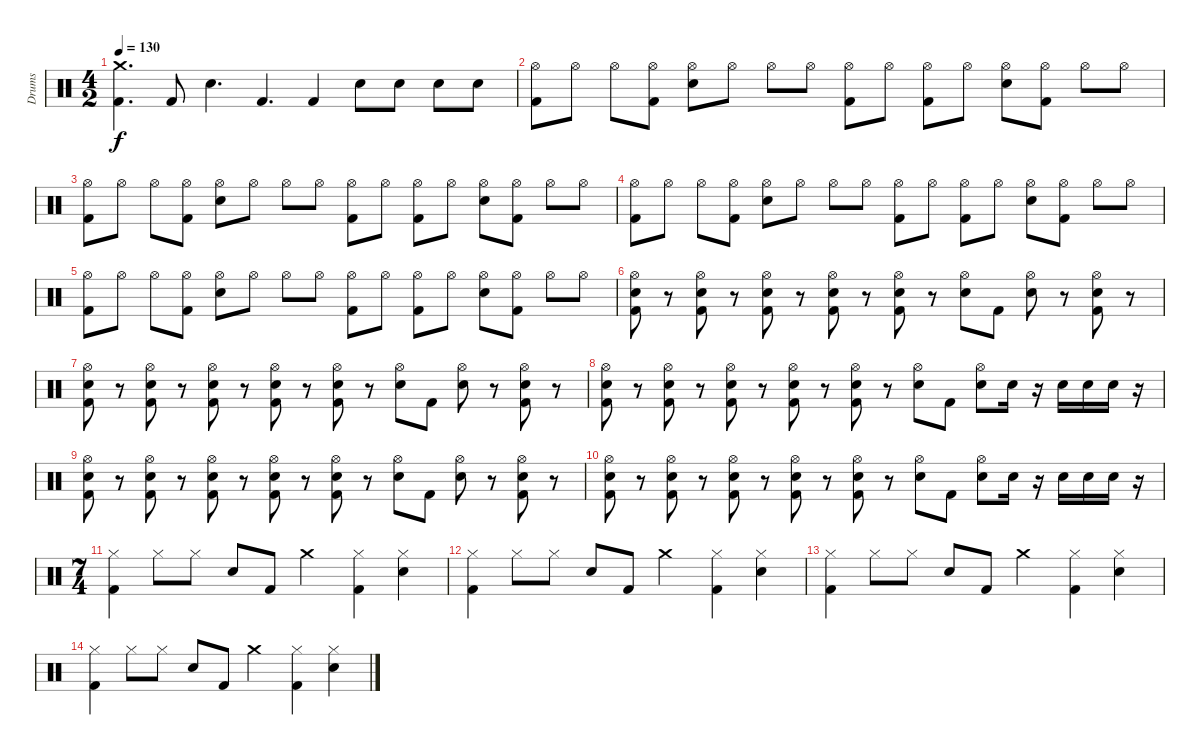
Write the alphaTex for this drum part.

\track ("Drums" "Drums") {instrument percussion}
\staff {score}
\articulation defaults
\ts (4 2)
\tempo 130
\clef neutral
\ks c
("Crash medium (hit)" "Kick (hit) 2").4{d dy f} "Kick (hit) 2".8 "Snare (hit) 2".4{d} "Kick (hit) 2".4{d} "Kick (hit) 2".4 "Snare (hit) 2".8 "Snare (hit) 2".8 "Snare (hit) 2".8 "Snare (hit) 2".8 |
("Hi-Hat (open)" "Kick (hit) 2").8 "Hi-Hat (open)".8 "Hi-Hat (open)".8 ("Hi-Hat (open)" "Kick (hit) 2").8 ("Hi-Hat (open)" "Snare (hit) 2").8 "Hi-Hat (open)".8 "Hi-Hat (open)".8 "Hi-Hat (open)".8 ("Hi-Hat (open)" "Kick (hit) 2").8 "Hi-Hat (open)".8 ("Hi-Hat (open)" "Kick (hit) 2").8 "Hi-Hat (open)".8 ("Hi-Hat (open)" "Snare (hit) 2").8 ("Hi-Hat (open)" "Kick (hit) 2").8 "Hi-Hat (open)".8 "Hi-Hat (open)".8 |
("Hi-Hat (open)" "Kick (hit) 2").8 "Hi-Hat (open)".8 "Hi-Hat (open)".8 ("Hi-Hat (open)" "Kick (hit) 2").8 ("Hi-Hat (open)" "Snare (hit) 2").8 "Hi-Hat (open)".8 "Hi-Hat (open)".8 "Hi-Hat (open)".8 ("Hi-Hat (open)" "Kick (hit) 2").8 "Hi-Hat (open)".8 ("Hi-Hat (open)" "Kick (hit) 2").8 "Hi-Hat (open)".8 ("Hi-Hat (open)" "Snare (hit) 2").8 ("Hi-Hat (open)" "Kick (hit) 2").8 "Hi-Hat (open)".8 "Hi-Hat (open)".8 |
("Hi-Hat (open)" "Kick (hit) 2").8 "Hi-Hat (open)".8 "Hi-Hat (open)".8 ("Hi-Hat (open)" "Kick (hit) 2").8 ("Hi-Hat (open)" "Snare (hit) 2").8 "Hi-Hat (open)".8 "Hi-Hat (open)".8 "Hi-Hat (open)".8 ("Hi-Hat (open)" "Kick (hit) 2").8 "Hi-Hat (open)".8 ("Hi-Hat (open)" "Kick (hit) 2").8 "Hi-Hat (open)".8 ("Hi-Hat (open)" "Snare (hit) 2").8 ("Hi-Hat (open)" "Kick (hit) 2").8 "Hi-Hat (open)".8 "Hi-Hat (open)".8 |
("Hi-Hat (open)" "Kick (hit) 2").8 "Hi-Hat (open)".8 "Hi-Hat (open)".8 ("Hi-Hat (open)" "Kick (hit) 2").8 ("Hi-Hat (open)" "Snare (hit) 2").8 "Hi-Hat (open)".8 "Hi-Hat (open)".8 "Hi-Hat (open)".8 ("Hi-Hat (open)" "Kick (hit) 2").8 "Hi-Hat (open)".8 ("Hi-Hat (open)" "Kick (hit) 2").8 "Hi-Hat (open)".8 ("Hi-Hat (open)" "Snare (hit) 2").8 ("Hi-Hat (open)" "Kick (hit) 2").8 "Hi-Hat (open)".8 "Hi-Hat (open)".8 |
("Kick (hit) 2" "Hi-Hat (open)" "Snare (hit) 2").8 r.8 ("Kick (hit) 2" "Hi-Hat (open)" "Snare (hit) 2").8 r.8 ("Kick (hit) 2" "Hi-Hat (open)" "Snare (hit) 2").8 r.8 ("Kick (hit) 2" "Hi-Hat (open)" "Snare (hit) 2").8 r.8 ("Kick (hit) 2" "Hi-Hat (open)" "Snare (hit) 2").8 r.8 ("Hi-Hat (open)" "Snare (hit) 2").8 "Kick (hit) 2".8 ("Hi-Hat (open)" "Snare (hit) 2").8 r.8 ("Kick (hit) 2" "Hi-Hat (open)" "Snare (hit) 2").8 r.8 |
("Kick (hit) 2" "Hi-Hat (open)" "Snare (hit) 2").8 r.8 ("Kick (hit) 2" "Hi-Hat (open)" "Snare (hit) 2").8 r.8 ("Kick (hit) 2" "Hi-Hat (open)" "Snare (hit) 2").8 r.8 ("Kick (hit) 2" "Hi-Hat (open)" "Snare (hit) 2").8 r.8 ("Kick (hit) 2" "Hi-Hat (open)" "Snare (hit) 2").8 r.8 ("Hi-Hat (open)" "Snare (hit) 2").8 "Kick (hit) 2".8 ("Hi-Hat (open)" "Snare (hit) 2").8 r.8 ("Kick (hit) 2" "Hi-Hat (open)" "Snare (hit) 2").8 r.8 |
("Kick (hit) 2" "Hi-Hat (open)" "Snare (hit) 2").8 r.8 ("Kick (hit) 2" "Hi-Hat (open)" "Snare (hit) 2").8 r.8 ("Kick (hit) 2" "Hi-Hat (open)" "Snare (hit) 2").8 r.8 ("Kick (hit) 2" "Hi-Hat (open)" "Snare (hit) 2").8 r.8 ("Kick (hit) 2" "Hi-Hat (open)" "Snare (hit) 2").8 r.8 ("Hi-Hat (open)" "Snare (hit) 2").8 "Kick (hit) 2".8 ("Hi-Hat (open)" "Snare (hit) 2").8 "Snare (hit) 2".16 r.16 "Snare (hit) 2".16 "Snare (hit) 2".16 "Snare (hit) 2".16 r.16 |
("Kick (hit) 2" "Hi-Hat (open)" "Snare (hit) 2").8 r.8 ("Kick (hit) 2" "Hi-Hat (open)" "Snare (hit) 2").8 r.8 ("Kick (hit) 2" "Hi-Hat (open)" "Snare (hit) 2").8 r.8 ("Kick (hit) 2" "Hi-Hat (open)" "Snare (hit) 2").8 r.8 ("Kick (hit) 2" "Hi-Hat (open)" "Snare (hit) 2").8 r.8 ("Hi-Hat (open)" "Snare (hit) 2").8 "Kick (hit) 2".8 ("Hi-Hat (open)" "Snare (hit) 2").8 r.8 ("Kick (hit) 2" "Hi-Hat (open)" "Snare (hit) 2").8 r.8 |
("Kick (hit) 2" "Hi-Hat (open)" "Snare (hit) 2").8 r.8 ("Kick (hit) 2" "Hi-Hat (open)" "Snare (hit) 2").8 r.8 ("Kick (hit) 2" "Hi-Hat (open)" "Snare (hit) 2").8 r.8 ("Kick (hit) 2" "Hi-Hat (open)" "Snare (hit) 2").8 r.8 ("Kick (hit) 2" "Hi-Hat (open)" "Snare (hit) 2").8 r.8 ("Hi-Hat (open)" "Snare (hit) 2").8 "Kick (hit) 2".8 ("Hi-Hat (open)" "Snare (hit) 2").8 "Snare (hit) 2".16 r.16 "Snare (hit) 2".16 "Snare (hit) 2".16 "Snare (hit) 2".16 r.16 |
\ts (7 4)
("Kick (hit) 2" "Hi-Hat (closed)").4 "Hi-Hat (closed)".8 "Hi-Hat (closed)".8 "Snare (hit) 2".8 "Kick (hit) 2".8 "Crash medium (hit)".2 ("Hi-Hat (closed)" "Kick (hit) 2").4 ("Hi-Hat (closed)" "Snare (hit) 2").4 |
("Kick (hit) 2" "Hi-Hat (closed)").4 "Hi-Hat (closed)".8 "Hi-Hat (closed)".8 "Snare (hit) 2".8 "Kick (hit) 2".8 "Crash medium (hit)".2 ("Hi-Hat (closed)" "Kick (hit) 2").4 ("Hi-Hat (closed)" "Snare (hit) 2").4 |
("Kick (hit) 2" "Hi-Hat (closed)").4 "Hi-Hat (closed)".8 "Hi-Hat (closed)".8 "Snare (hit) 2".8 "Kick (hit) 2".8 "Crash medium (hit)".2 ("Hi-Hat (closed)" "Kick (hit) 2").4 ("Hi-Hat (closed)" "Snare (hit) 2").4 |
("Kick (hit) 2" "Hi-Hat (closed)").4 "Hi-Hat (closed)".8 "Hi-Hat (closed)".8 "Snare (hit) 2".8 "Kick (hit) 2".8 "Crash medium (hit)".2 ("Hi-Hat (closed)" "Kick (hit) 2").4 ("Hi-Hat (closed)" "Snare (hit) 2").4
